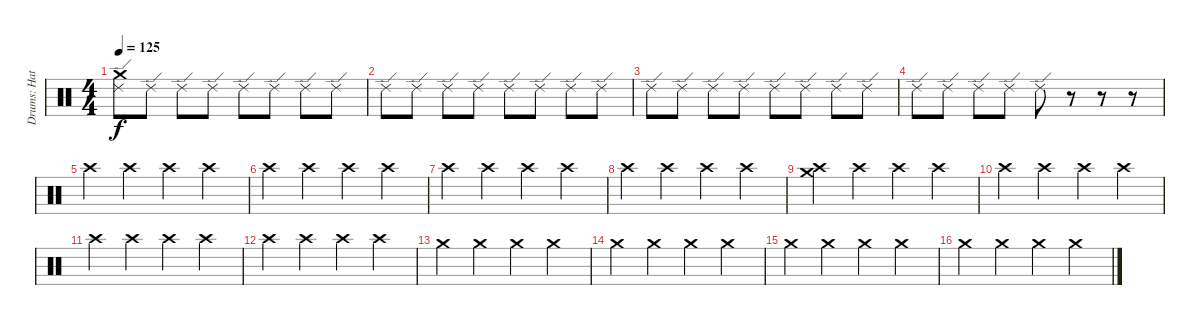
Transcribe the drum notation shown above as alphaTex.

\track ("Drums: Hats, Etc" "Drums: Hat") {instrument percussion}
\staff {score}
\articulation defaults
\ts (4 4)
\tempo 125
\clef neutral
\ks c
("Ride (edge) 2" "Crash medium (hit)").8{dy f} "Ride (edge) 2".8 "Ride (edge) 2".8 "Ride (edge) 2".8 "Ride (edge) 2".8 "Ride (edge) 2".8 "Ride (edge) 2".8 "Ride (edge) 2".8 |
"Ride (edge) 2".8 "Ride (edge) 2".8 "Ride (edge) 2".8 "Ride (edge) 2".8 "Ride (edge) 2".8 "Ride (edge) 2".8 "Ride (edge) 2".8 "Ride (edge) 2".8 |
"Ride (edge) 2".8 "Ride (edge) 2".8 "Ride (edge) 2".8 "Ride (edge) 2".8 "Ride (edge) 2".8 "Ride (edge) 2".8 "Ride (edge) 2".8 "Ride (edge) 2".8 |
"Ride (edge) 2".8 "Ride (edge) 2".8 "Ride (edge) 2".8 "Ride (edge) 2".8 "Ride (edge) 2".8 r.8 r.8 r.8 |
"Crash high (hit)".4 "Crash high (hit)".4 "Crash high (hit)".4 "Crash high (hit)".4 |
"Crash high (hit)".4 "Crash high (hit)".4 "Crash high (hit)".4 "Crash high (hit)".4 |
"Crash high (hit)".4 "Crash high (hit)".4 "Crash high (hit)".4 "Crash high (hit)".4 |
"Crash high (hit)".4 "Crash high (hit)".4 "Crash high (hit)".4 "Crash high (hit)".4 |
("Crash high (hit)" "Crash medium (hit)").4 "Crash high (hit)".4 "Crash high (hit)".4 "Crash high (hit)".4 |
"Crash high (hit)".4 "Crash high (hit)".4 "Crash high (hit)".4 "Crash high (hit)".4 |
"Crash high (hit)".4 "Crash high (hit)".4 "Crash high (hit)".4 "Crash high (hit)".4 |
"Crash high (hit)".4 "Crash high (hit)".4 "Crash high (hit)".4 "Crash high (hit)".4 |
"Crash medium (hit)".4 "Crash medium (hit)".4 "Crash medium (hit)".4 "Crash medium (hit)".4 |
"Crash medium (hit)".4 "Crash medium (hit)".4 "Crash medium (hit)".4 "Crash medium (hit)".4 |
"Crash medium (hit)".4 "Crash medium (hit)".4 "Crash medium (hit)".4 "Crash medium (hit)".4 |
"Crash medium (hit)".4 "Crash medium (hit)".4 "Crash medium (hit)".4 "Crash medium (hit)".4
